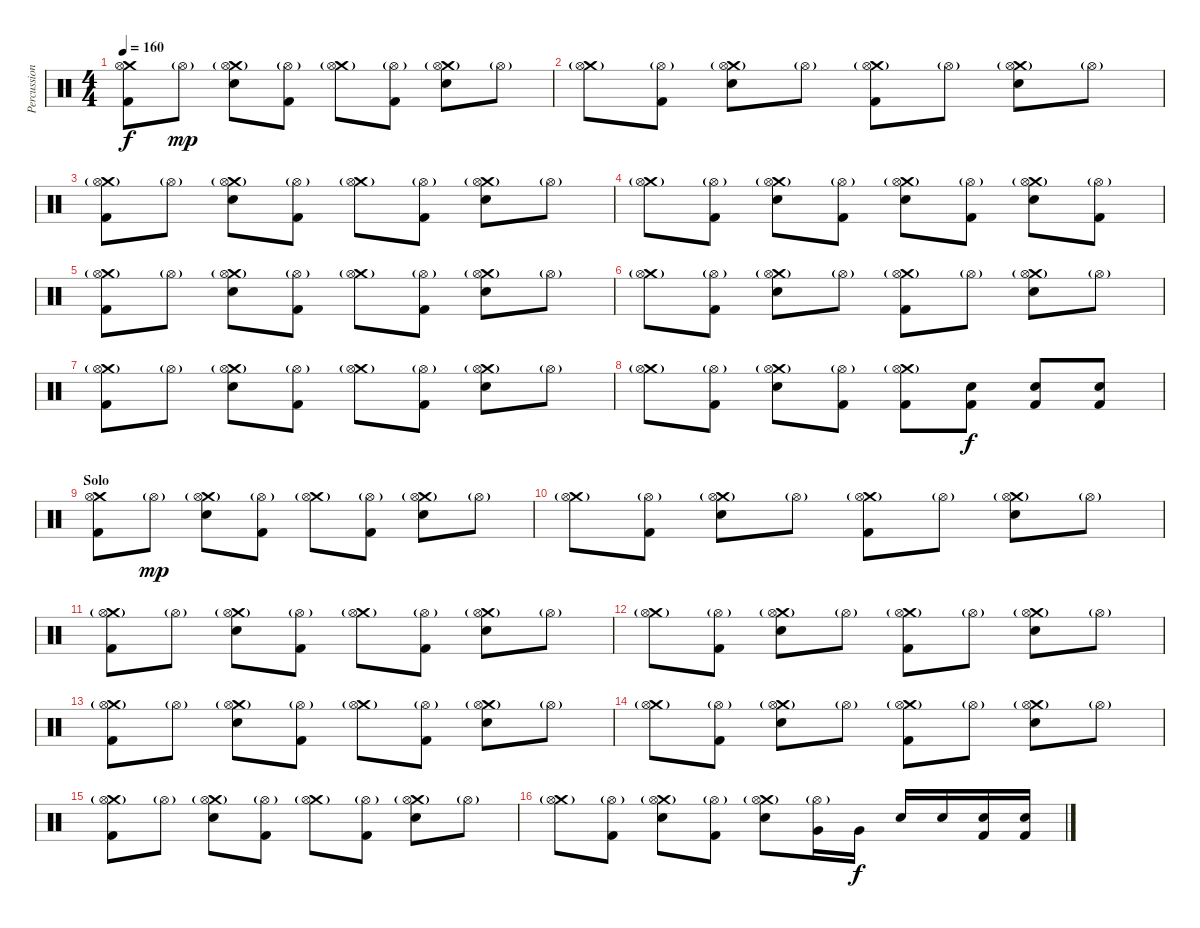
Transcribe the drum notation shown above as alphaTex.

\track ("Percussions" "Percussion") {instrument percussion}
\staff {score}
\articulation defaults
\ts (4 4)
\tempo 160
\clef neutral
\ks c
("Crash medium (hit)" "Hi-Hat (open)" "Kick (hit) 2").8{dy f} "Hi-Hat (open)"{g}.8{dy mp} ("Crash medium (hit)"{g} "Hi-Hat (open)" "Snare (hit) 2").8 ("Hi-Hat (open)"{g} "Kick (hit) 2").8 ("Crash medium (hit)"{g} "Hi-Hat (open)").8 ("Hi-Hat (open)"{g} "Kick (hit) 2").8 ("Crash medium (hit)"{g} "Hi-Hat (open)" "Snare (hit) 2").8 "Hi-Hat (open)"{g}.8 |
("Crash medium (hit)"{g} "Hi-Hat (open)").8 ("Hi-Hat (open)"{g} "Kick (hit) 2").8 ("Crash medium (hit)"{g} "Hi-Hat (open)" "Snare (hit) 2").8 "Hi-Hat (open)"{g}.8 ("Crash medium (hit)"{g} "Hi-Hat (open)" "Kick (hit) 2").8 "Hi-Hat (open)"{g}.8 ("Crash medium (hit)"{g} "Hi-Hat (open)" "Snare (hit) 2").8 "Hi-Hat (open)"{g}.8 |
("Crash medium (hit)"{g} "Hi-Hat (open)" "Kick (hit) 2").8 "Hi-Hat (open)"{g}.8 ("Crash medium (hit)"{g} "Hi-Hat (open)" "Snare (hit) 2").8 ("Hi-Hat (open)"{g} "Kick (hit) 2").8 ("Crash medium (hit)"{g} "Hi-Hat (open)").8 ("Hi-Hat (open)"{g} "Kick (hit) 2").8 ("Crash medium (hit)"{g} "Hi-Hat (open)" "Snare (hit) 2").8 "Hi-Hat (open)"{g}.8 |
("Crash medium (hit)"{g} "Hi-Hat (open)").8 ("Hi-Hat (open)"{g} "Kick (hit) 2").8 ("Crash medium (hit)"{g} "Hi-Hat (open)" "Snare (hit) 2").8 ("Hi-Hat (open)"{g} "Kick (hit) 2").8 ("Crash medium (hit)"{g} "Hi-Hat (open)" "Snare (hit) 2").8 ("Hi-Hat (open)"{g} "Kick (hit) 2").8 ("Crash medium (hit)"{g} "Hi-Hat (open)" "Snare (hit) 2").8 ("Hi-Hat (open)"{g} "Kick (hit) 2").8 |
("Crash medium (hit)"{g} "Hi-Hat (open)" "Kick (hit) 2").8 "Hi-Hat (open)"{g}.8 ("Crash medium (hit)"{g} "Hi-Hat (open)" "Snare (hit) 2").8 ("Hi-Hat (open)"{g} "Kick (hit) 2").8 ("Crash medium (hit)"{g} "Hi-Hat (open)").8 ("Hi-Hat (open)"{g} "Kick (hit) 2").8 ("Crash medium (hit)"{g} "Hi-Hat (open)" "Snare (hit) 2").8 "Hi-Hat (open)"{g}.8 |
("Crash medium (hit)"{g} "Hi-Hat (open)").8 ("Hi-Hat (open)"{g} "Kick (hit) 2").8 ("Crash medium (hit)"{g} "Hi-Hat (open)" "Snare (hit) 2").8 "Hi-Hat (open)"{g}.8 ("Crash medium (hit)"{g} "Hi-Hat (open)" "Kick (hit) 2").8 "Hi-Hat (open)"{g}.8 ("Crash medium (hit)"{g} "Hi-Hat (open)" "Snare (hit) 2").8 "Hi-Hat (open)"{g}.8 |
("Crash medium (hit)"{g} "Hi-Hat (open)" "Kick (hit) 2").8 "Hi-Hat (open)"{g}.8 ("Crash medium (hit)"{g} "Hi-Hat (open)" "Snare (hit) 2").8 ("Hi-Hat (open)"{g} "Kick (hit) 2").8 ("Crash medium (hit)"{g} "Hi-Hat (open)").8 ("Hi-Hat (open)"{g} "Kick (hit) 2").8 ("Crash medium (hit)"{g} "Hi-Hat (open)" "Snare (hit) 2").8 "Hi-Hat (open)"{g}.8 |
("Crash medium (hit)"{g} "Hi-Hat (open)").8 ("Hi-Hat (open)"{g} "Kick (hit) 2").8 ("Crash medium (hit)"{g} "Hi-Hat (open)" "Snare (hit) 2").8 ("Hi-Hat (open)"{g} "Kick (hit) 2").8 ("Crash medium (hit)"{g} "Hi-Hat (open)" "Kick (hit) 2").8 ("Snare (hit) 2" "Kick (hit) 2").8{dy f} ("Snare (hit) 2" "Kick (hit) 2").8 ("Snare (hit) 2" "Kick (hit) 2").8 |
\section ("" "Solo")
("Crash medium (hit)" "Hi-Hat (open)" "Kick (hit) 2").8 "Hi-Hat (open)"{g}.8{dy mp} ("Crash medium (hit)"{g} "Hi-Hat (open)" "Snare (hit) 2").8 ("Hi-Hat (open)"{g} "Kick (hit) 2").8 ("Crash medium (hit)"{g} "Hi-Hat (open)").8 ("Hi-Hat (open)"{g} "Kick (hit) 2").8 ("Crash medium (hit)"{g} "Hi-Hat (open)" "Snare (hit) 2").8 "Hi-Hat (open)"{g}.8 |
("Crash medium (hit)"{g} "Hi-Hat (open)").8 ("Hi-Hat (open)"{g} "Kick (hit) 2").8 ("Crash medium (hit)"{g} "Hi-Hat (open)" "Snare (hit) 2").8 "Hi-Hat (open)"{g}.8 ("Crash medium (hit)"{g} "Hi-Hat (open)" "Kick (hit) 2").8 "Hi-Hat (open)"{g}.8 ("Crash medium (hit)"{g} "Hi-Hat (open)" "Snare (hit) 2").8 "Hi-Hat (open)"{g}.8 |
("Crash medium (hit)"{g} "Hi-Hat (open)" "Kick (hit) 2").8 "Hi-Hat (open)"{g}.8 ("Crash medium (hit)"{g} "Hi-Hat (open)" "Snare (hit) 2").8 ("Hi-Hat (open)"{g} "Kick (hit) 2").8 ("Crash medium (hit)"{g} "Hi-Hat (open)").8 ("Hi-Hat (open)"{g} "Kick (hit) 2").8 ("Crash medium (hit)"{g} "Hi-Hat (open)" "Snare (hit) 2").8 "Hi-Hat (open)"{g}.8 |
("Crash medium (hit)"{g} "Hi-Hat (open)").8 ("Hi-Hat (open)"{g} "Kick (hit) 2").8 ("Crash medium (hit)"{g} "Hi-Hat (open)" "Snare (hit) 2").8 "Hi-Hat (open)"{g}.8 ("Crash medium (hit)"{g} "Hi-Hat (open)" "Kick (hit) 2").8 "Hi-Hat (open)"{g}.8 ("Crash medium (hit)"{g} "Hi-Hat (open)" "Snare (hit) 2").8 "Hi-Hat (open)"{g}.8 |
("Crash medium (hit)"{g} "Hi-Hat (open)" "Kick (hit) 2").8 "Hi-Hat (open)"{g}.8 ("Crash medium (hit)"{g} "Hi-Hat (open)" "Snare (hit) 2").8 ("Hi-Hat (open)"{g} "Kick (hit) 2").8 ("Crash medium (hit)"{g} "Hi-Hat (open)").8 ("Hi-Hat (open)"{g} "Kick (hit) 2").8 ("Crash medium (hit)"{g} "Hi-Hat (open)" "Snare (hit) 2").8 "Hi-Hat (open)"{g}.8 |
("Crash medium (hit)"{g} "Hi-Hat (open)").8 ("Hi-Hat (open)"{g} "Kick (hit) 2").8 ("Crash medium (hit)"{g} "Hi-Hat (open)" "Snare (hit) 2").8 "Hi-Hat (open)"{g}.8 ("Crash medium (hit)"{g} "Hi-Hat (open)" "Kick (hit) 2").8 "Hi-Hat (open)"{g}.8 ("Crash medium (hit)"{g} "Hi-Hat (open)" "Snare (hit) 2").8 "Hi-Hat (open)"{g}.8 |
("Crash medium (hit)"{g} "Hi-Hat (open)" "Kick (hit) 2").8 "Hi-Hat (open)"{g}.8 ("Crash medium (hit)"{g} "Hi-Hat (open)" "Snare (hit) 2").8 ("Hi-Hat (open)"{g} "Kick (hit) 2").8 ("Crash medium (hit)"{g} "Hi-Hat (open)").8 ("Hi-Hat (open)"{g} "Kick (hit) 2").8 ("Crash medium (hit)"{g} "Hi-Hat (open)" "Snare (hit) 2").8 "Hi-Hat (open)"{g}.8 |
("Crash medium (hit)"{g} "Hi-Hat (open)").8 ("Hi-Hat (open)"{g} "Kick (hit) 2").8 ("Crash medium (hit)"{g} "Hi-Hat (open)" "Snare (hit) 2").8 ("Hi-Hat (open)"{g} "Kick (hit) 2").8 ("Crash medium (hit)"{g} "Hi-Hat (open)" "Snare (hit) 2").8 ("Hi-Hat (open)"{g} "Very Low Tom (hit)").16 "Very Low Tom (hit)".16{dy f} "Snare (hit) 2".16 "Snare (hit) 2".16 ("Snare (hit) 2" "Kick (hit) 2").16 ("Snare (hit) 2" "Kick (hit) 2").16
